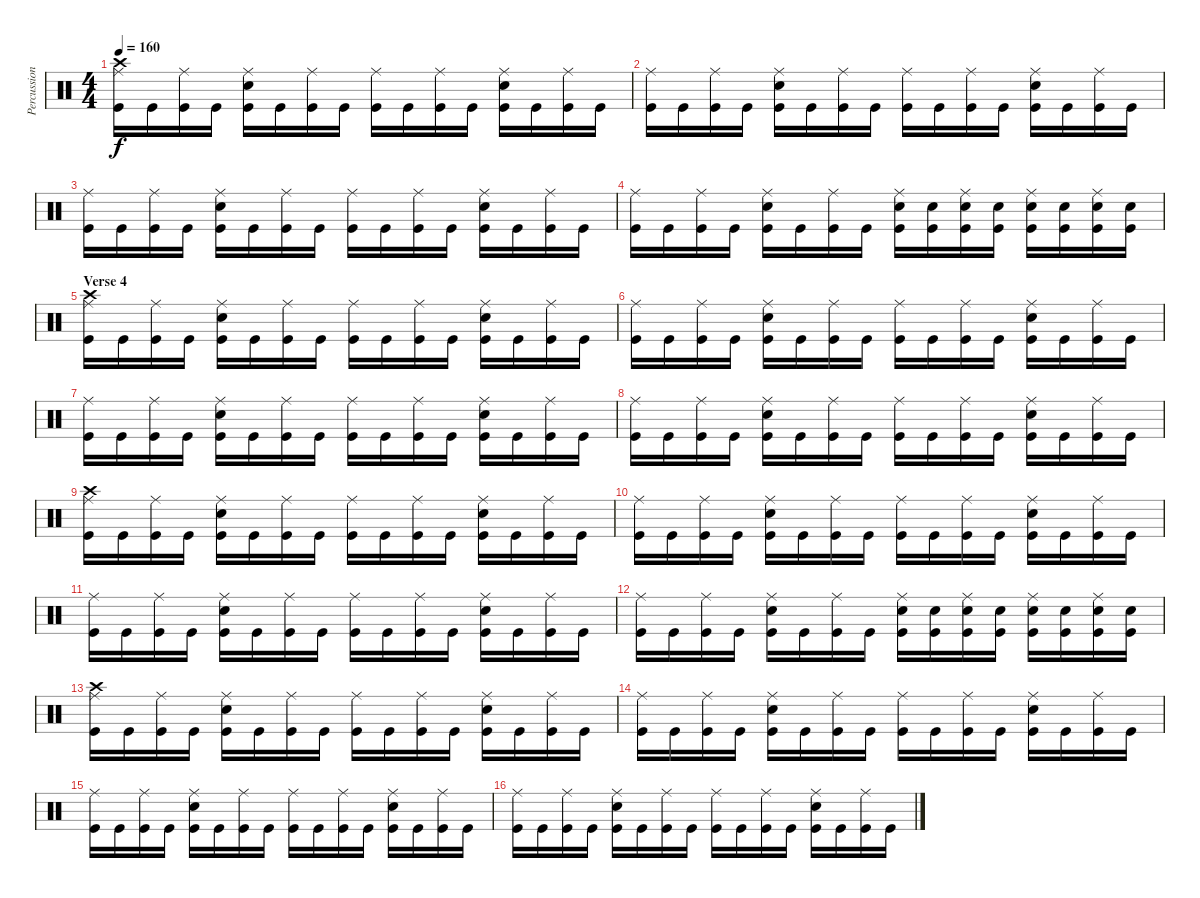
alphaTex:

\track ("Percussion" "Percussion") {instrument percussion}
\staff {score}
\articulation defaults
\ts (4 4)
\tempo 160
\clef neutral
\ks c
("Crash high (hit)" "Ride (middle)" "Kick (hit)").16{dy f} "Kick (hit)".16 ("Ride (middle)" "Kick (hit)").16 "Kick (hit)".16 ("Electric Snare (hit)" "Ride (middle)" "Kick (hit)").16 "Kick (hit)".16 ("Ride (middle)" "Kick (hit)").16 "Kick (hit)".16 ("Ride (middle)" "Kick (hit)").16 "Kick (hit)".16 ("Ride (middle)" "Kick (hit)").16 "Kick (hit)".16 ("Electric Snare (hit)" "Ride (middle)" "Kick (hit)").16 "Kick (hit)".16 ("Ride (middle)" "Kick (hit)").16 "Kick (hit)".16 |
("Ride (middle)" "Kick (hit)").16 "Kick (hit)".16 ("Ride (middle)" "Kick (hit)").16 "Kick (hit)".16 ("Electric Snare (hit)" "Ride (middle)" "Kick (hit)").16 "Kick (hit)".16 ("Ride (middle)" "Kick (hit)").16 "Kick (hit)".16 ("Ride (middle)" "Kick (hit)").16 "Kick (hit)".16 ("Ride (middle)" "Kick (hit)").16 "Kick (hit)".16 ("Electric Snare (hit)" "Ride (middle)" "Kick (hit)").16 "Kick (hit)".16 ("Ride (middle)" "Kick (hit)").16 "Kick (hit)".16 |
("Ride (middle)" "Kick (hit)").16 "Kick (hit)".16 ("Ride (middle)" "Kick (hit)").16 "Kick (hit)".16 ("Electric Snare (hit)" "Ride (middle)" "Kick (hit)").16 "Kick (hit)".16 ("Ride (middle)" "Kick (hit)").16 "Kick (hit)".16 ("Ride (middle)" "Kick (hit)").16 "Kick (hit)".16 ("Ride (middle)" "Kick (hit)").16 "Kick (hit)".16 ("Electric Snare (hit)" "Ride (middle)" "Kick (hit)").16 "Kick (hit)".16 ("Ride (middle)" "Kick (hit)").16 "Kick (hit)".16 |
("Ride (middle)" "Kick (hit)").16 "Kick (hit)".16 ("Ride (middle)" "Kick (hit)").16 "Kick (hit)".16 ("Electric Snare (hit)" "Ride (middle)" "Kick (hit)").16 "Kick (hit)".16 ("Ride (middle)" "Kick (hit)").16 "Kick (hit)".16 ("Electric Snare (hit)" "Ride (middle)" "Kick (hit)").16 ("Electric Snare (hit)" "Kick (hit)").16 ("Electric Snare (hit)" "Ride (middle)" "Kick (hit)").16 ("Electric Snare (hit)" "Kick (hit)").16 ("Electric Snare (hit)" "Ride (middle)" "Kick (hit)").16 ("Electric Snare (hit)" "Kick (hit)").16 ("Electric Snare (hit)" "Ride (middle)" "Kick (hit)").16 ("Electric Snare (hit)" "Kick (hit)").16 |
\section ("" "Verse 4")
("Crash high (hit)" "Ride (middle)" "Kick (hit)").16 "Kick (hit)".16 ("Ride (middle)" "Kick (hit)").16 "Kick (hit)".16 ("Electric Snare (hit)" "Ride (middle)" "Kick (hit)").16 "Kick (hit)".16 ("Ride (middle)" "Kick (hit)").16 "Kick (hit)".16 ("Ride (middle)" "Kick (hit)").16 "Kick (hit)".16 ("Ride (middle)" "Kick (hit)").16 "Kick (hit)".16 ("Electric Snare (hit)" "Ride (middle)" "Kick (hit)").16 "Kick (hit)".16 ("Ride (middle)" "Kick (hit)").16 "Kick (hit)".16 |
("Ride (middle)" "Kick (hit)").16 "Kick (hit)".16 ("Ride (middle)" "Kick (hit)").16 "Kick (hit)".16 ("Electric Snare (hit)" "Ride (middle)" "Kick (hit)").16 "Kick (hit)".16 ("Ride (middle)" "Kick (hit)").16 "Kick (hit)".16 ("Ride (middle)" "Kick (hit)").16 "Kick (hit)".16 ("Ride (middle)" "Kick (hit)").16 "Kick (hit)".16 ("Electric Snare (hit)" "Ride (middle)" "Kick (hit)").16 "Kick (hit)".16 ("Ride (middle)" "Kick (hit)").16 "Kick (hit)".16 |
("Ride (middle)" "Kick (hit)").16 "Kick (hit)".16 ("Ride (middle)" "Kick (hit)").16 "Kick (hit)".16 ("Electric Snare (hit)" "Ride (middle)" "Kick (hit)").16 "Kick (hit)".16 ("Ride (middle)" "Kick (hit)").16 "Kick (hit)".16 ("Ride (middle)" "Kick (hit)").16 "Kick (hit)".16 ("Ride (middle)" "Kick (hit)").16 "Kick (hit)".16 ("Electric Snare (hit)" "Ride (middle)" "Kick (hit)").16 "Kick (hit)".16 ("Ride (middle)" "Kick (hit)").16 "Kick (hit)".16 |
("Ride (middle)" "Kick (hit)").16 "Kick (hit)".16 ("Ride (middle)" "Kick (hit)").16 "Kick (hit)".16 ("Electric Snare (hit)" "Ride (middle)" "Kick (hit)").16 "Kick (hit)".16 ("Ride (middle)" "Kick (hit)").16 "Kick (hit)".16 ("Ride (middle)" "Kick (hit)").16 "Kick (hit)".16 ("Ride (middle)" "Kick (hit)").16 "Kick (hit)".16 ("Electric Snare (hit)" "Ride (middle)" "Kick (hit)").16 "Kick (hit)".16 ("Ride (middle)" "Kick (hit)").16 "Kick (hit)".16 |
("Crash high (hit)" "Ride (middle)" "Kick (hit)").16 "Kick (hit)".16 ("Ride (middle)" "Kick (hit)").16 "Kick (hit)".16 ("Electric Snare (hit)" "Ride (middle)" "Kick (hit)").16 "Kick (hit)".16 ("Ride (middle)" "Kick (hit)").16 "Kick (hit)".16 ("Ride (middle)" "Kick (hit)").16 "Kick (hit)".16 ("Ride (middle)" "Kick (hit)").16 "Kick (hit)".16 ("Electric Snare (hit)" "Ride (middle)" "Kick (hit)").16 "Kick (hit)".16 ("Ride (middle)" "Kick (hit)").16 "Kick (hit)".16 |
("Ride (middle)" "Kick (hit)").16 "Kick (hit)".16 ("Ride (middle)" "Kick (hit)").16 "Kick (hit)".16 ("Electric Snare (hit)" "Ride (middle)" "Kick (hit)").16 "Kick (hit)".16 ("Ride (middle)" "Kick (hit)").16 "Kick (hit)".16 ("Ride (middle)" "Kick (hit)").16 "Kick (hit)".16 ("Ride (middle)" "Kick (hit)").16 "Kick (hit)".16 ("Electric Snare (hit)" "Ride (middle)" "Kick (hit)").16 "Kick (hit)".16 ("Ride (middle)" "Kick (hit)").16 "Kick (hit)".16 |
("Ride (middle)" "Kick (hit)").16 "Kick (hit)".16 ("Ride (middle)" "Kick (hit)").16 "Kick (hit)".16 ("Electric Snare (hit)" "Ride (middle)" "Kick (hit)").16 "Kick (hit)".16 ("Ride (middle)" "Kick (hit)").16 "Kick (hit)".16 ("Ride (middle)" "Kick (hit)").16 "Kick (hit)".16 ("Ride (middle)" "Kick (hit)").16 "Kick (hit)".16 ("Electric Snare (hit)" "Ride (middle)" "Kick (hit)").16 "Kick (hit)".16 ("Ride (middle)" "Kick (hit)").16 "Kick (hit)".16 |
("Ride (middle)" "Kick (hit)").16 "Kick (hit)".16 ("Ride (middle)" "Kick (hit)").16 "Kick (hit)".16 ("Electric Snare (hit)" "Ride (middle)" "Kick (hit)").16 "Kick (hit)".16 ("Ride (middle)" "Kick (hit)").16 "Kick (hit)".16 ("Electric Snare (hit)" "Ride (middle)" "Kick (hit)").16 ("Electric Snare (hit)" "Kick (hit)").16 ("Electric Snare (hit)" "Ride (middle)" "Kick (hit)").16 ("Electric Snare (hit)" "Kick (hit)").16 ("Electric Snare (hit)" "Ride (middle)" "Kick (hit)").16 ("Electric Snare (hit)" "Kick (hit)").16 ("Electric Snare (hit)" "Ride (middle)" "Kick (hit)").16 ("Electric Snare (hit)" "Kick (hit)").16 |
("Crash high (hit)" "Ride (middle)" "Kick (hit)").16 "Kick (hit)".16 ("Ride (middle)" "Kick (hit)").16 "Kick (hit)".16 ("Electric Snare (hit)" "Ride (middle)" "Kick (hit)").16 "Kick (hit)".16 ("Ride (middle)" "Kick (hit)").16 "Kick (hit)".16 ("Ride (middle)" "Kick (hit)").16 "Kick (hit)".16 ("Ride (middle)" "Kick (hit)").16 "Kick (hit)".16 ("Electric Snare (hit)" "Ride (middle)" "Kick (hit)").16 "Kick (hit)".16 ("Ride (middle)" "Kick (hit)").16 "Kick (hit)".16 |
("Ride (middle)" "Kick (hit)").16 "Kick (hit)".16 ("Ride (middle)" "Kick (hit)").16 "Kick (hit)".16 ("Electric Snare (hit)" "Ride (middle)" "Kick (hit)").16 "Kick (hit)".16 ("Ride (middle)" "Kick (hit)").16 "Kick (hit)".16 ("Ride (middle)" "Kick (hit)").16 "Kick (hit)".16 ("Ride (middle)" "Kick (hit)").16 "Kick (hit)".16 ("Electric Snare (hit)" "Ride (middle)" "Kick (hit)").16 "Kick (hit)".16 ("Ride (middle)" "Kick (hit)").16 "Kick (hit)".16 |
("Ride (middle)" "Kick (hit)").16 "Kick (hit)".16 ("Ride (middle)" "Kick (hit)").16 "Kick (hit)".16 ("Electric Snare (hit)" "Ride (middle)" "Kick (hit)").16 "Kick (hit)".16 ("Ride (middle)" "Kick (hit)").16 "Kick (hit)".16 ("Ride (middle)" "Kick (hit)").16 "Kick (hit)".16 ("Ride (middle)" "Kick (hit)").16 "Kick (hit)".16 ("Electric Snare (hit)" "Ride (middle)" "Kick (hit)").16 "Kick (hit)".16 ("Ride (middle)" "Kick (hit)").16 "Kick (hit)".16 |
("Ride (middle)" "Kick (hit)").16 "Kick (hit)".16 ("Ride (middle)" "Kick (hit)").16 "Kick (hit)".16 ("Electric Snare (hit)" "Ride (middle)" "Kick (hit)").16 "Kick (hit)".16 ("Ride (middle)" "Kick (hit)").16 "Kick (hit)".16 ("Ride (middle)" "Kick (hit)").16 "Kick (hit)".16 ("Ride (middle)" "Kick (hit)").16 "Kick (hit)".16 ("Electric Snare (hit)" "Ride (middle)" "Kick (hit)").16 "Kick (hit)".16 ("Ride (middle)" "Kick (hit)").16 "Kick (hit)".16
